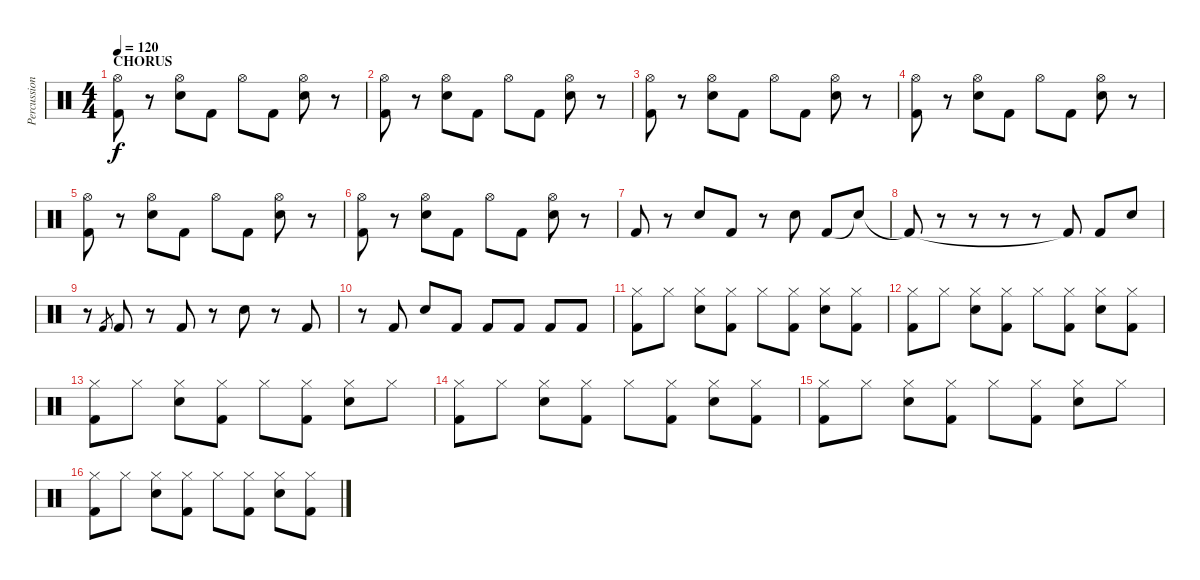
\track ("Percussion" "Percussion") {instrument percussion}
\staff {score}
\articulation defaults
\ts (4 4)
\section ("" "CHORUS")
\tempo 120
\clef neutral
\ks c
("Hi-Hat (open)" "Kick (hit) 2").8{dy f} r.8 ("Hi-Hat (open)" "Snare (hit) 2").8 "Kick (hit) 2".8 "Hi-Hat (open)".8 "Kick (hit) 2".8 ("Hi-Hat (open)" "Snare (hit) 2").8 r.8 |
("Hi-Hat (open)" "Kick (hit) 2").8 r.8 ("Hi-Hat (open)" "Snare (hit) 2").8 "Kick (hit) 2".8 "Hi-Hat (open)".8 "Kick (hit) 2".8 ("Hi-Hat (open)" "Snare (hit) 2").8 r.8 |
("Hi-Hat (open)" "Kick (hit) 2").8 r.8 ("Hi-Hat (open)" "Snare (hit) 2").8 "Kick (hit) 2".8 "Hi-Hat (open)".8 "Kick (hit) 2".8 ("Hi-Hat (open)" "Snare (hit) 2").8 r.8 |
("Hi-Hat (open)" "Kick (hit) 2").8 r.8 ("Hi-Hat (open)" "Snare (hit) 2").8 "Kick (hit) 2".8 "Hi-Hat (open)".8 "Kick (hit) 2".8 ("Hi-Hat (open)" "Snare (hit) 2").8 r.8 |
("Hi-Hat (open)" "Kick (hit) 2").8 r.8 ("Hi-Hat (open)" "Snare (hit) 2").8 "Kick (hit) 2".8 "Hi-Hat (open)".8 "Kick (hit) 2".8 ("Hi-Hat (open)" "Snare (hit) 2").8 r.8 |
("Hi-Hat (open)" "Kick (hit) 2").8 r.8 ("Hi-Hat (open)" "Snare (hit) 2").8 "Kick (hit) 2".8 "Hi-Hat (open)".8 "Kick (hit) 2".8 ("Hi-Hat (open)" "Snare (hit) 2").8 r.8 |
"Kick (hit) 2".8 r.8 "Snare (hit) 2".8 "Kick (hit) 2".8 r.8 "Snare (hit) 2".8 "Kick (hit) 2".8 "Snare (hit)"{t}.8 |
"Kick (hit) 2"{t}.8 r.8 r.8 r.8 r.8 "Kick (hit) 2"{t}.8 "Kick (hit) 2".8 "Snare (hit) 2".8 |
r.8 "Kick (hit) 2".8{gr} "Kick (hit) 2".8 r.8 "Kick (hit) 2".8 r.8 "Snare (hit) 2".8 r.8 "Kick (hit) 2".8 |
r.8 "Kick (hit) 2".8 "Snare (hit) 2".8 "Kick (hit) 2".8 "Kick (hit) 2".8 "Kick (hit) 2".8 "Kick (hit) 2".8 "Kick (hit) 2".8 |
("Hi-Hat (closed)" "Kick (hit) 2").8 "Hi-Hat (closed)".8 ("Hi-Hat (closed)" "Snare (hit) 2").8 ("Hi-Hat (closed)" "Kick (hit) 2").8 "Hi-Hat (closed)".8 ("Hi-Hat (closed)" "Kick (hit) 2").8 ("Hi-Hat (closed)" "Snare (hit) 2").8 ("Hi-Hat (closed)" "Kick (hit) 2").8 |
("Hi-Hat (closed)" "Kick (hit) 2").8 "Hi-Hat (closed)".8 ("Hi-Hat (closed)" "Snare (hit) 2").8 ("Hi-Hat (closed)" "Kick (hit) 2").8 "Hi-Hat (closed)".8 ("Hi-Hat (closed)" "Kick (hit) 2").8 ("Hi-Hat (closed)" "Snare (hit) 2").8 ("Hi-Hat (closed)" "Kick (hit) 2").8 |
("Hi-Hat (closed)" "Kick (hit) 2").8 "Hi-Hat (closed)".8 ("Hi-Hat (closed)" "Snare (hit) 2").8 ("Hi-Hat (closed)" "Kick (hit) 2").8 "Hi-Hat (closed)".8 ("Hi-Hat (closed)" "Kick (hit) 2").8 ("Hi-Hat (closed)" "Snare (hit) 2").8 "Hi-Hat (closed)".8 |
("Hi-Hat (closed)" "Kick (hit) 2").8 "Hi-Hat (closed)".8 ("Hi-Hat (closed)" "Snare (hit) 2").8 ("Hi-Hat (closed)" "Kick (hit) 2").8 "Hi-Hat (closed)".8 ("Hi-Hat (closed)" "Kick (hit) 2").8 ("Hi-Hat (closed)" "Snare (hit) 2").8 ("Hi-Hat (closed)" "Kick (hit) 2").8 |
("Hi-Hat (closed)" "Kick (hit) 2").8 "Hi-Hat (closed)".8 ("Hi-Hat (closed)" "Snare (hit) 2").8 ("Hi-Hat (closed)" "Kick (hit) 2").8 "Hi-Hat (closed)".8 ("Hi-Hat (closed)" "Kick (hit) 2").8 ("Hi-Hat (closed)" "Snare (hit) 2").8 "Hi-Hat (closed)".8 |
("Hi-Hat (closed)" "Kick (hit) 2").8 "Hi-Hat (closed)".8 ("Hi-Hat (closed)" "Snare (hit) 2").8 ("Hi-Hat (closed)" "Kick (hit) 2").8 "Hi-Hat (closed)".8 ("Hi-Hat (closed)" "Kick (hit) 2").8 ("Hi-Hat (closed)" "Snare (hit) 2").8 ("Hi-Hat (closed)" "Kick (hit) 2").8
